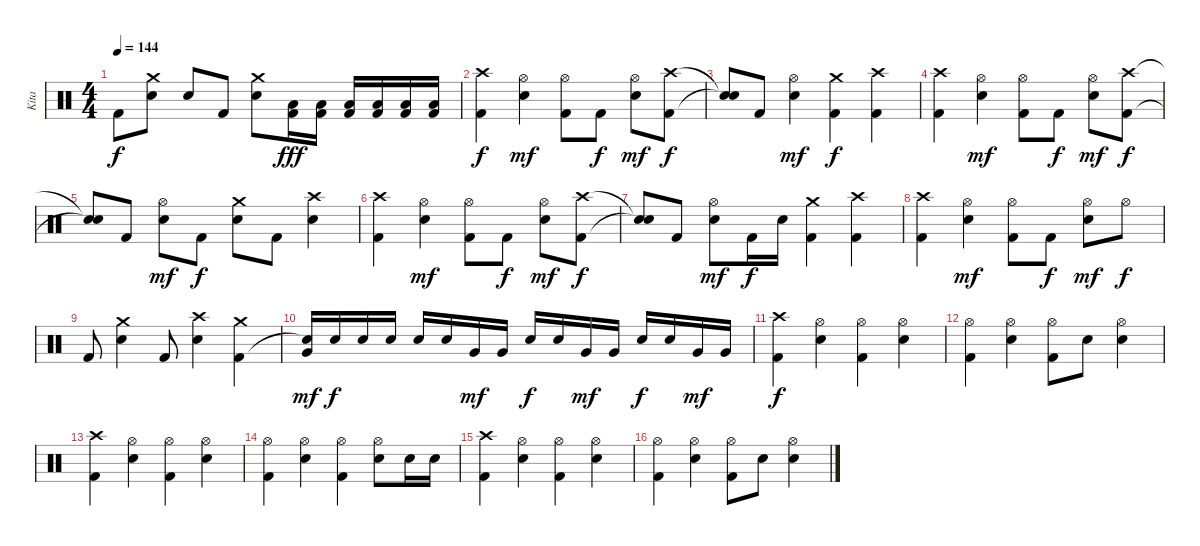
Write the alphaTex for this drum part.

\track ("Kita" "Kita") {instrument percussion}
\staff {score}
\articulation defaults
\ts (4 4)
\tempo 144
\clef neutral
\ks c "Kick (hit) 2".8{dy f}
("Crash medium (hit)" "Snare (hit) 2").8 "Snare (hit) 2".8 "Kick (hit) 2".8 ("Crash medium (hit)" "Snare (hit) 2").8 ("Kick (hit) 2" "Low Floor Tom (hit)").16{dy fff} ("Kick (hit) 2" "Low Floor Tom (hit)").16 ("Kick (hit) 2" "Low Floor Tom (hit)").16 ("Kick (hit) 2" "Low Floor Tom (hit)").16 ("Kick (hit) 2" "Low Floor Tom (hit)").16 ("Kick (hit) 2" "Low Floor Tom (hit)").16 |
("Kick (hit) 2" "Crash high (hit)").4{dy f} ("Hi-Hat (open)" "Snare (hit) 2").4{dy mf} ("Kick (hit) 2" "Hi-Hat (open)").8 "Kick (hit) 2".8{dy f} ("Hi-Hat (open)" "Snare (hit) 2").8{dy mf} ("Kick (hit) 2" "Crash high (hit)").8{dy f} |
("Snare (hit)"{t} "Snare (hit)"{t}).8 "Kick (hit) 2".8 ("Hi-Hat (open)" "Snare (hit) 2").4{dy mf} ("Kick (hit) 2" "Crash medium (hit)").4{dy f} ("Kick (hit) 2" "Crash high (hit)").4 |
("Kick (hit) 2" "Crash high (hit)").4 ("Hi-Hat (open)" "Snare (hit) 2").4{dy mf} ("Kick (hit) 2" "Hi-Hat (open)").8 "Kick (hit) 2".8{dy f} ("Hi-Hat (open)" "Snare (hit) 2").8{dy mf} ("Kick (hit) 2" "Crash high (hit)").8{dy f} |
("Snare (hit)"{t} "Snare (hit)"{t}).8 "Kick (hit) 2".8 ("Hi-Hat (open)" "Snare (hit) 2").8{dy mf} "Kick (hit) 2".8{dy f} ("Crash medium (hit)" "Snare (hit) 2").8 "Kick (hit) 2".8 ("Crash high (hit)" "Snare (hit) 2").4 |
("Kick (hit) 2" "Crash high (hit)").4 ("Hi-Hat (open)" "Snare (hit) 2").4{dy mf} ("Kick (hit) 2" "Hi-Hat (open)").8 "Kick (hit) 2".8{dy f} ("Hi-Hat (open)" "Snare (hit) 2").8{dy mf} ("Kick (hit) 2" "Crash high (hit)").8{dy f} |
("Snare (hit)"{t} "Snare (hit)"{t}).8 "Kick (hit) 2".8 ("Hi-Hat (open)" "Snare (hit) 2").8{dy mf} "Kick (hit) 2".16{dy f} "Snare (hit) 2".16 ("Kick (hit) 2" "Crash medium (hit)").4 ("Kick (hit) 2" "Crash high (hit)").4 |
("Kick (hit) 2" "Crash high (hit)").4 ("Hi-Hat (open)" "Snare (hit) 2").4{dy mf} ("Kick (hit) 2" "Hi-Hat (open)").8 "Kick (hit) 2".8{dy f} ("Hi-Hat (open)" "Snare (hit) 2").8{dy mf} "Hi-Hat (open)".8{dy f} |
"Kick (hit) 2".8 ("Crash medium (hit)" "Snare (hit) 2").4 "Kick (hit) 2".8 ("Crash high (hit)" "Snare (hit) 2").4 ("Kick (hit) 2" "Crash medium (hit)").4 |
("Snare (hit)"{t} "Very Low Tom (hit)").16{dy mf} "Snare (hit) 2".16{dy f} "Snare (hit) 2".16 "Snare (hit) 2".16 "Snare (hit) 2".16 "Snare (hit) 2".16 "Very Low Tom (hit)".16{dy mf} "Very Low Tom (hit)".16 "Snare (hit) 2".16{dy f} "Snare (hit) 2".16 "Very Low Tom (hit)".16{dy mf} "Very Low Tom (hit)".16 "Snare (hit) 2".16{dy f} "Snare (hit) 2".16 "Very Low Tom (hit)".16{dy mf} "Very Low Tom (hit)".16 |
("Kick (hit) 2" "Crash high (hit)").4{dy f} ("Hi-Hat (open)" "Snare (hit) 2").4 ("Kick (hit) 2" "Hi-Hat (open)").4 ("Hi-Hat (open)" "Snare (hit) 2").4 |
("Kick (hit) 2" "Hi-Hat (open)").4 ("Hi-Hat (open)" "Snare (hit) 2").4 ("Kick (hit) 2" "Hi-Hat (open)").8 "Snare (hit) 2".8 ("Hi-Hat (open)" "Snare (hit) 2").4 |
("Kick (hit) 2" "Crash high (hit)").4 ("Hi-Hat (open)" "Snare (hit) 2").4 ("Kick (hit) 2" "Hi-Hat (open)").4 ("Hi-Hat (open)" "Snare (hit) 2").4 |
("Kick (hit) 2" "Hi-Hat (open)").4 ("Hi-Hat (open)" "Snare (hit) 2").4 ("Kick (hit) 2" "Hi-Hat (open)").4 ("Hi-Hat (open)" "Snare (hit) 2").8 "Snare (hit) 2".16 "Snare (hit) 2".16 |
("Kick (hit) 2" "Crash high (hit)").4 ("Hi-Hat (open)" "Snare (hit) 2").4 ("Kick (hit) 2" "Hi-Hat (open)").4 ("Hi-Hat (open)" "Snare (hit) 2").4 |
("Kick (hit) 2" "Hi-Hat (open)").4 ("Hi-Hat (open)" "Snare (hit) 2").4 ("Kick (hit) 2" "Hi-Hat (open)").8 "Snare (hit) 2".8 ("Hi-Hat (open)" "Snare (hit) 2").4
